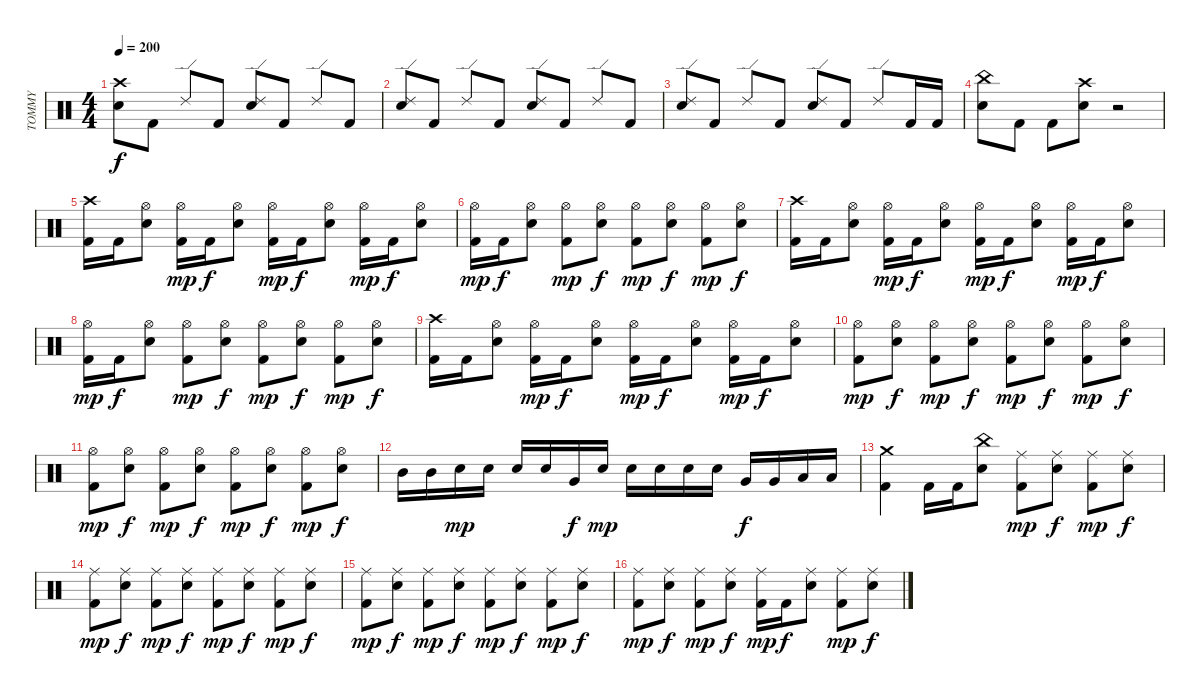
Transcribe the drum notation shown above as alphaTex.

\track ("TOMMY" "TOMMY") {instrument percussion}
\staff {score}
\articulation defaults
\ts (4 4)
\tempo 200
\clef neutral
\ks c
("Snare (hit) 2" "Crash high (hit)").8{dy f} "Kick (hit) 2".8 "Ride (edge) 2".8 "Kick (hit) 2".8 ("Snare (hit) 2" "Ride (edge) 2").8 "Kick (hit) 2".8 "Ride (edge) 2".8 "Kick (hit) 2".8 |
("Snare (hit) 2" "Ride (edge) 2").8 "Kick (hit) 2".8 "Ride (edge) 2".8 "Kick (hit) 2".8 ("Snare (hit) 2" "Ride (edge) 2").8 "Kick (hit) 2".8 "Ride (edge) 2".8 "Kick (hit) 2".8 |
("Snare (hit) 2" "Ride (edge) 2").8 "Kick (hit) 2".8 "Ride (edge) 2".8 "Kick (hit) 2".8 ("Snare (hit) 2" "Ride (edge) 2").8 "Kick (hit) 2".8 "Ride (edge) 2".8 "Kick (hit) 2".16 "Kick (hit) 2".16 |
("Snare (hit) 2" "China (hit)").8 "Kick (hit) 2".8 "Kick (hit) 2".8 ("Snare (hit) 2" "Crash high (hit)").8 r.2 |
("Kick (hit) 2" "Crash high (hit)").16 "Kick (hit) 2".16 ("Snare (hit) 2" "Hi-Hat (open)").8 ("Kick (hit) 2" "Hi-Hat (open)").16{dy mp} "Kick (hit) 2".16{dy f} ("Snare (hit) 2" "Hi-Hat (open)").8 ("Kick (hit) 2" "Hi-Hat (open)").16{dy mp} "Kick (hit) 2".16{dy f} ("Snare (hit) 2" "Hi-Hat (open)").8 ("Kick (hit) 2" "Hi-Hat (open)").16{dy mp} "Kick (hit) 2".16{dy f} ("Snare (hit) 2" "Hi-Hat (open)").8 |
("Kick (hit) 2" "Hi-Hat (open)").16{dy mp} "Kick (hit) 2".16{dy f} ("Snare (hit) 2" "Hi-Hat (open)").8 ("Kick (hit) 2" "Hi-Hat (open)").8{dy mp} ("Snare (hit) 2" "Hi-Hat (open)").8{dy f} ("Kick (hit) 2" "Hi-Hat (open)").8{dy mp} ("Snare (hit) 2" "Hi-Hat (open)").8{dy f} ("Kick (hit) 2" "Hi-Hat (open)").8{dy mp} ("Snare (hit) 2" "Hi-Hat (open)").8{dy f} |
("Kick (hit) 2" "Crash high (hit)").16 "Kick (hit) 2".16 ("Snare (hit) 2" "Hi-Hat (open)").8 ("Kick (hit) 2" "Hi-Hat (open)").16{dy mp} "Kick (hit) 2".16{dy f} ("Snare (hit) 2" "Hi-Hat (open)").8 ("Kick (hit) 2" "Hi-Hat (open)").16{dy mp} "Kick (hit) 2".16{dy f} ("Snare (hit) 2" "Hi-Hat (open)").8 ("Kick (hit) 2" "Hi-Hat (open)").16{dy mp} "Kick (hit) 2".16{dy f} ("Snare (hit) 2" "Hi-Hat (open)").8 |
("Kick (hit) 2" "Hi-Hat (open)").16{dy mp} "Kick (hit) 2".16{dy f} ("Snare (hit) 2" "Hi-Hat (open)").8 ("Kick (hit) 2" "Hi-Hat (open)").8{dy mp} ("Snare (hit) 2" "Hi-Hat (open)").8{dy f} ("Kick (hit) 2" "Hi-Hat (open)").8{dy mp} ("Snare (hit) 2" "Hi-Hat (open)").8{dy f} ("Kick (hit) 2" "Hi-Hat (open)").8{dy mp} ("Snare (hit) 2" "Hi-Hat (open)").8{dy f} |
("Kick (hit) 2" "Crash high (hit)").16 "Kick (hit) 2".16 ("Snare (hit) 2" "Hi-Hat (open)").8 ("Kick (hit) 2" "Hi-Hat (open)").16{dy mp} "Kick (hit) 2".16{dy f} ("Snare (hit) 2" "Hi-Hat (open)").8 ("Kick (hit) 2" "Hi-Hat (open)").16{dy mp} "Kick (hit) 2".16{dy f} ("Snare (hit) 2" "Hi-Hat (open)").8 ("Kick (hit) 2" "Hi-Hat (open)").16{dy mp} "Kick (hit) 2".16{dy f} ("Snare (hit) 2" "Hi-Hat (open)").8 |
("Kick (hit) 2" "Hi-Hat (open)").8{dy mp} ("Snare (hit) 2" "Hi-Hat (open)").8{dy f} ("Kick (hit) 2" "Hi-Hat (open)").8{dy mp} ("Snare (hit) 2" "Hi-Hat (open)").8{dy f} ("Kick (hit) 2" "Hi-Hat (open)").8{dy mp} ("Snare (hit) 2" "Hi-Hat (open)").8{dy f} ("Kick (hit) 2" "Hi-Hat (open)").8{dy mp} ("Snare (hit) 2" "Hi-Hat (open)").8{dy f} |
("Kick (hit) 2" "Hi-Hat (open)").8{dy mp} ("Snare (hit) 2" "Hi-Hat (open)").8{dy f} ("Kick (hit) 2" "Hi-Hat (open)").8{dy mp} ("Snare (hit) 2" "Hi-Hat (open)").8{dy f} ("Kick (hit) 2" "Hi-Hat (open)").8{dy mp} ("Snare (hit) 2" "Hi-Hat (open)").8{dy f} ("Kick (hit) 2" "Hi-Hat (open)").8{dy mp} ("Snare (hit) 2" "Hi-Hat (open)").8{dy f} |
"Mid Tom (hit)".16 "Mid Tom (hit)".16 "Snare (hit) 2".16{dy mp} "Snare (hit) 2".16 "Snare (hit) 2".16 "Snare (hit) 2".16 "Very Low Tom (hit)".16{dy f} "Snare (hit) 2".16{dy mp} "Snare (hit) 2".16 "Snare (hit) 2".16 "Snare (hit) 2".16 "Snare (hit) 2".16 "Very Low Tom (hit)".16{dy f} "Very Low Tom (hit)".16 "Low Floor Tom (hit)".16 "Low Floor Tom (hit)".16 |
("Kick (hit) 2" "Crash medium (hit)").4 "Kick (hit) 2".16 "Kick (hit) 2".16 ("Snare (hit) 2" "China (hit)").8 ("Kick (hit) 2" "Ride (middle)").8{dy mp} ("Snare (hit) 2" "Ride (middle)").8{dy f} ("Kick (hit) 2" "Ride (middle)").8{dy mp} ("Snare (hit) 2" "Ride (middle)").8{dy f} |
("Kick (hit) 2" "Ride (middle)").8{dy mp} ("Snare (hit) 2" "Ride (middle)").8{dy f} ("Kick (hit) 2" "Ride (middle)").8{dy mp} ("Snare (hit) 2" "Ride (middle)").8{dy f} ("Kick (hit) 2" "Ride (middle)").8{dy mp} ("Snare (hit) 2" "Ride (middle)").8{dy f} ("Kick (hit) 2" "Ride (middle)").8{dy mp} ("Snare (hit) 2" "Ride (middle)").8{dy f} |
("Kick (hit) 2" "Ride (middle)").8{dy mp} ("Snare (hit) 2" "Ride (middle)").8{dy f} ("Kick (hit) 2" "Ride (middle)").8{dy mp} ("Snare (hit) 2" "Ride (middle)").8{dy f} ("Kick (hit) 2" "Ride (middle)").8{dy mp} ("Snare (hit) 2" "Ride (middle)").8{dy f} ("Kick (hit) 2" "Ride (middle)").8{dy mp} ("Snare (hit) 2" "Ride (middle)").8{dy f} |
("Kick (hit) 2" "Ride (middle)").8{dy mp} ("Snare (hit) 2" "Ride (middle)").8{dy f} ("Kick (hit) 2" "Ride (middle)").8{dy mp} ("Snare (hit) 2" "Ride (middle)").8{dy f} ("Kick (hit) 2" "Ride (middle)").16{dy mp} "Kick (hit) 2".16{dy f} ("Snare (hit) 2" "Ride (middle)").8 ("Kick (hit) 2" "Ride (middle)").8{dy mp} ("Snare (hit) 2" "Ride (middle)").8{dy f}
